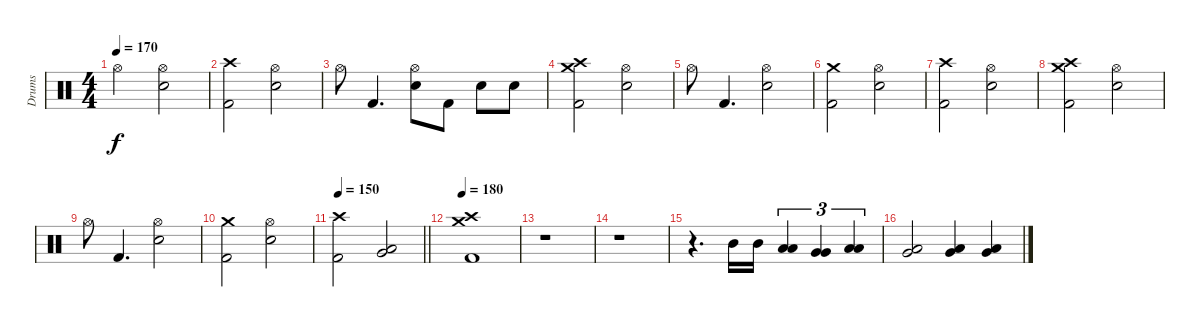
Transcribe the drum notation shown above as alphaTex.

\track ("Drums" "Drums") {instrument percussion}
\staff {score}
\articulation defaults
\ts (4 4)
\tempo 170
\clef neutral
\ks c "Hi-Hat (open)".2{dy f}
("Hi-Hat (open)" "Electric Snare (hit)").2 |
("Crash high (hit)" "Kick (hit) 2").2 ("Hi-Hat (open)" "Electric Snare (hit)").2 |
"Hi-Hat (open)".8 "Kick (hit) 2".4{d} ("Hi-Hat (open)" "Electric Snare (hit)").8 "Kick (hit) 2".8 "Electric Snare (hit)".8 "Electric Snare (hit)".8 |
("Crash medium (hit)" "Crash high (hit)" "Kick (hit) 2").2 ("Hi-Hat (open)" "Electric Snare (hit)").2 |
"Hi-Hat (open)".8 "Kick (hit) 2".4{d} ("Hi-Hat (open)" "Electric Snare (hit)").2 |
("Crash medium (hit)" "Kick (hit) 2").2 ("Hi-Hat (open)" "Electric Snare (hit)").2 |
("Crash high (hit)" "Kick (hit) 2").2 ("Hi-Hat (open)" "Electric Snare (hit)").2 |
("Crash medium (hit)" "Crash high (hit)" "Kick (hit) 2").2 ("Hi-Hat (open)" "Electric Snare (hit)").2 |
"Hi-Hat (open)".8 "Kick (hit) 2".4{d} ("Hi-Hat (open)" "Electric Snare (hit)").2 |
("Crash medium (hit)" "Kick (hit) 2").2 ("Hi-Hat (open)" "Electric Snare (hit)").2 |
\tempo 150
\barLineRight lightlight
("Crash high (hit)" "Kick (hit) 2").2 ("Very Low Tom (hit)" "Low Floor Tom (hit)").2 |
\section ("" "")
\tempo 180
("Crash medium (hit)" "Crash high (hit)" "Kick (hit) 2").1 |
r.1 |
r.1 |
r.4{d} "Mid Tom (hit)".16 "Mid Tom (hit)".16 ("Low Tom (hit)" "Low Tom (hit)").4{tu (3 2) bu 120} ("Very Low Tom (hit)" "Very Low Tom (hit)").4{tu (3 2) bu 120} ("Low Floor Tom (hit)" "Low Floor Tom (hit)").4{tu (3 2) bu 120} |
("Very Low Tom (hit)" "Low Floor Tom (hit)").2 ("Very Low Tom (hit)" "Low Floor Tom (hit)").4 ("Very Low Tom (hit)" "Low Floor Tom (hit)").4
